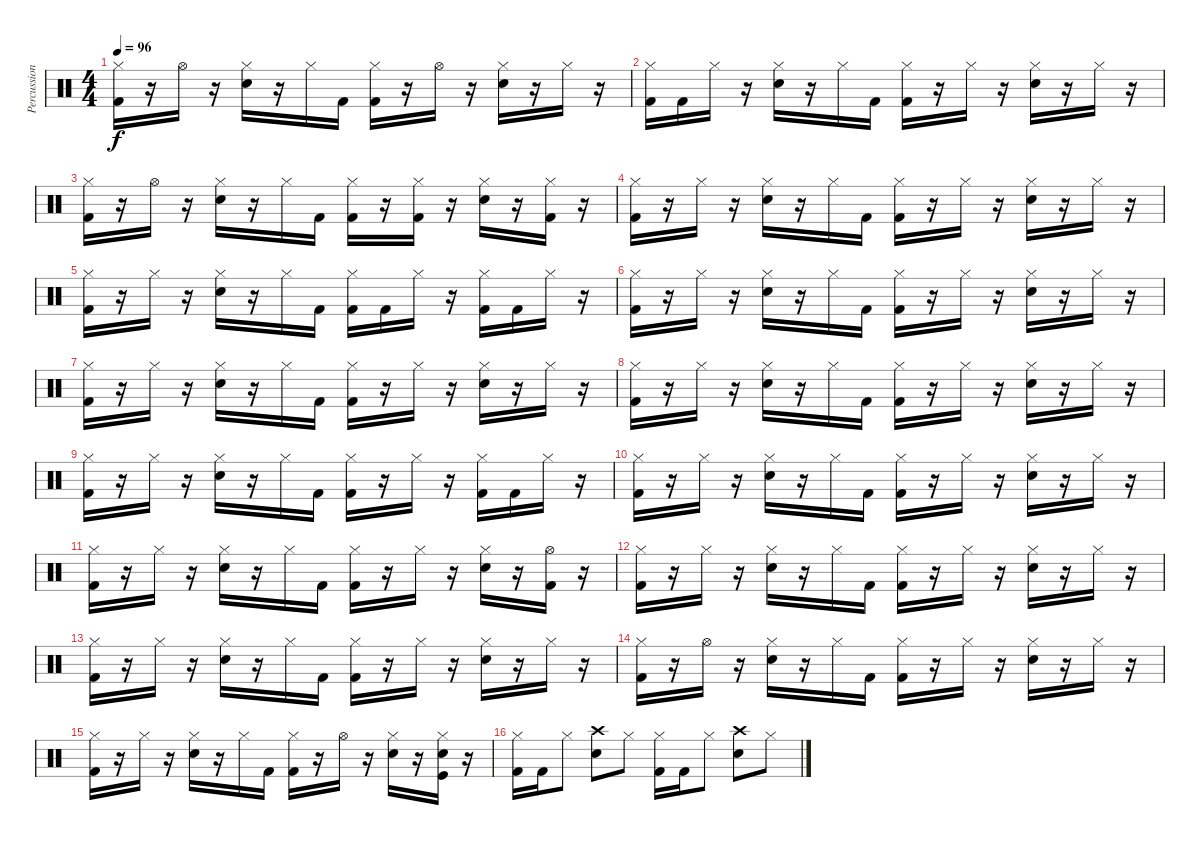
\track ("Percussion" "Percussion") {instrument percussion}
\staff {score}
\articulation defaults
\ts (4 4)
\tempo 96
\clef neutral
\ks c
("Hi-Hat (closed)" "Kick (hit) 2").16{dy f} r.16 "Hi-Hat (open)".16 r.16 ("Hi-Hat (closed)" "Snare (hit) 2").16 r.16 "Hi-Hat (closed)".16 "Kick (hit) 2".16 ("Hi-Hat (closed)" "Kick (hit) 2").16 r.16 "Hi-Hat (open)".16 r.16 ("Hi-Hat (closed)" "Snare (hit) 2").16 r.16 "Hi-Hat (closed)".16 r.16 |
("Hi-Hat (closed)" "Kick (hit) 2").16 "Kick (hit) 2".16 "Hi-Hat (closed)".16 r.16 ("Hi-Hat (closed)" "Snare (hit) 2").16 r.16 "Hi-Hat (closed)".16 "Kick (hit) 2".16 ("Hi-Hat (closed)" "Kick (hit) 2").16 r.16 "Hi-Hat (closed)".16 r.16 ("Hi-Hat (closed)" "Snare (hit) 2").16 r.16 "Hi-Hat (closed)".16 r.16 |
("Hi-Hat (closed)" "Kick (hit) 2").16 r.16 "Hi-Hat (open)".16 r.16 ("Hi-Hat (closed)" "Snare (hit) 2").16 r.16 "Hi-Hat (closed)".16 "Kick (hit) 2".16 ("Hi-Hat (closed)" "Kick (hit) 2").16 r.16 ("Hi-Hat (closed)" "Kick (hit) 2").16 r.16 ("Hi-Hat (closed)" "Snare (hit) 2").16 r.16 ("Hi-Hat (closed)" "Kick (hit) 2").16 r.16 |
("Hi-Hat (closed)" "Kick (hit) 2").16 r.16 "Hi-Hat (closed)".16 r.16 ("Hi-Hat (closed)" "Snare (hit) 2").16 r.16 "Hi-Hat (closed)".16 "Kick (hit) 2".16 ("Hi-Hat (closed)" "Kick (hit) 2").16 r.16 "Hi-Hat (closed)".16 r.16 ("Hi-Hat (closed)" "Snare (hit) 2").16 r.16 "Hi-Hat (closed)".16 r.16 |
("Hi-Hat (closed)" "Kick (hit) 2").16 r.16 "Hi-Hat (closed)".16 r.16 ("Hi-Hat (closed)" "Snare (hit) 2").16 r.16 "Hi-Hat (closed)".16 "Kick (hit) 2".16 ("Hi-Hat (closed)" "Kick (hit) 2").16 "Kick (hit) 2".16 "Hi-Hat (closed)".16 r.16 ("Hi-Hat (closed)" "Kick (hit) 2").16 "Kick (hit) 2".16 "Hi-Hat (closed)".16 r.16 |
("Hi-Hat (closed)" "Kick (hit) 2").16 r.16 "Hi-Hat (closed)".16 r.16 ("Hi-Hat (closed)" "Snare (hit) 2").16 r.16 "Hi-Hat (closed)".16 "Kick (hit) 2".16 ("Hi-Hat (closed)" "Kick (hit) 2").16 r.16 "Hi-Hat (closed)".16 r.16 ("Hi-Hat (closed)" "Snare (hit) 2").16 r.16 "Hi-Hat (closed)".16 r.16 |
("Hi-Hat (closed)" "Kick (hit) 2").16 r.16 "Hi-Hat (closed)".16 r.16 ("Hi-Hat (closed)" "Snare (hit) 2").16 r.16 "Hi-Hat (closed)".16 "Kick (hit) 2".16 ("Hi-Hat (closed)" "Kick (hit) 2").16 r.16 "Hi-Hat (closed)".16 r.16 ("Hi-Hat (closed)" "Snare (hit) 2").16 r.16 "Hi-Hat (closed)".16 r.16 |
("Hi-Hat (closed)" "Kick (hit) 2").16 r.16 "Hi-Hat (closed)".16 r.16 ("Hi-Hat (closed)" "Snare (hit) 2").16 r.16 "Hi-Hat (closed)".16 "Kick (hit) 2".16 ("Hi-Hat (closed)" "Kick (hit) 2").16 r.16 "Hi-Hat (closed)".16 r.16 ("Hi-Hat (closed)" "Snare (hit) 2").16 r.16 "Hi-Hat (closed)".16 r.16 |
("Hi-Hat (closed)" "Kick (hit) 2").16 r.16 "Hi-Hat (closed)".16 r.16 ("Hi-Hat (closed)" "Snare (hit) 2").16 r.16 "Hi-Hat (closed)".16 "Kick (hit) 2".16 ("Hi-Hat (closed)" "Kick (hit) 2").16 r.16 "Hi-Hat (closed)".16 r.16 ("Hi-Hat (closed)" "Kick (hit) 2").16 "Kick (hit) 2".16 "Hi-Hat (closed)".16 r.16 |
("Hi-Hat (closed)" "Kick (hit) 2").16 r.16 "Hi-Hat (closed)".16 r.16 ("Hi-Hat (closed)" "Snare (hit) 2").16 r.16 "Hi-Hat (closed)".16 "Kick (hit) 2".16 ("Hi-Hat (closed)" "Kick (hit) 2").16 r.16 "Hi-Hat (closed)".16 r.16 ("Hi-Hat (closed)" "Snare (hit) 2").16 r.16 "Hi-Hat (closed)".16 r.16 |
("Hi-Hat (closed)" "Kick (hit) 2").16 r.16 "Hi-Hat (closed)".16 r.16 ("Hi-Hat (closed)" "Snare (hit) 2").16 r.16 "Hi-Hat (closed)".16 "Kick (hit) 2".16 ("Hi-Hat (closed)" "Kick (hit) 2").16 r.16 "Hi-Hat (closed)".16 r.16 ("Hi-Hat (closed)" "Snare (hit) 2").16 r.16 ("Hi-Hat (open)" "Kick (hit) 2").16 r.16 |
("Hi-Hat (closed)" "Kick (hit) 2").16 r.16 "Hi-Hat (closed)".16 r.16 ("Hi-Hat (closed)" "Snare (hit) 2").16 r.16 "Hi-Hat (closed)".16 "Kick (hit) 2".16 ("Hi-Hat (closed)" "Kick (hit) 2").16 r.16 "Hi-Hat (closed)".16 r.16 ("Hi-Hat (closed)" "Snare (hit) 2").16 r.16 "Hi-Hat (closed)".16 r.16 |
("Hi-Hat (closed)" "Kick (hit) 2").16 r.16 "Hi-Hat (closed)".16 r.16 ("Hi-Hat (closed)" "Snare (hit) 2").16 r.16 "Hi-Hat (closed)".16 "Kick (hit) 2".16 ("Hi-Hat (closed)" "Kick (hit) 2").16 r.16 "Hi-Hat (closed)".16 r.16 ("Hi-Hat (closed)" "Snare (hit) 2").16 r.16 "Hi-Hat (closed)".16 r.16 |
("Hi-Hat (closed)" "Kick (hit) 2").16 r.16 "Hi-Hat (open)".16 r.16 ("Hi-Hat (closed)" "Snare (hit) 2").16 r.16 "Hi-Hat (closed)".16 "Kick (hit) 2".16 ("Hi-Hat (closed)" "Kick (hit) 2").16 r.16 "Hi-Hat (closed)".16 r.16 ("Hi-Hat (closed)" "Snare (hit) 2").16 r.16 "Hi-Hat (closed)".16 r.16 |
("Hi-Hat (closed)" "Kick (hit) 2").16 r.16 "Hi-Hat (closed)".16 r.16 ("Hi-Hat (closed)" "Snare (hit) 2").16 r.16 "Hi-Hat (closed)".16 "Kick (hit) 2".16 ("Hi-Hat (closed)" "Kick (hit) 2").16 r.16 "Hi-Hat (open)".16 r.16 ("Hi-Hat (closed)" "Snare (hit) 2").16 r.16 ("Hi-Hat (closed)" "Kick (hit)" "Snare (hit) 2").16 r.16 |
("Hi-Hat (closed)" "Kick (hit) 2").16 "Kick (hit) 2".16 "Hi-Hat (closed)".8 ("Crash high (hit)" "Snare (hit) 2").8 "Hi-Hat (closed)".8 ("Hi-Hat (closed)" "Kick (hit) 2").16 "Kick (hit) 2".16 "Hi-Hat (closed)".8 ("Crash high (hit)" "Snare (hit) 2").8 "Hi-Hat (closed)".8
